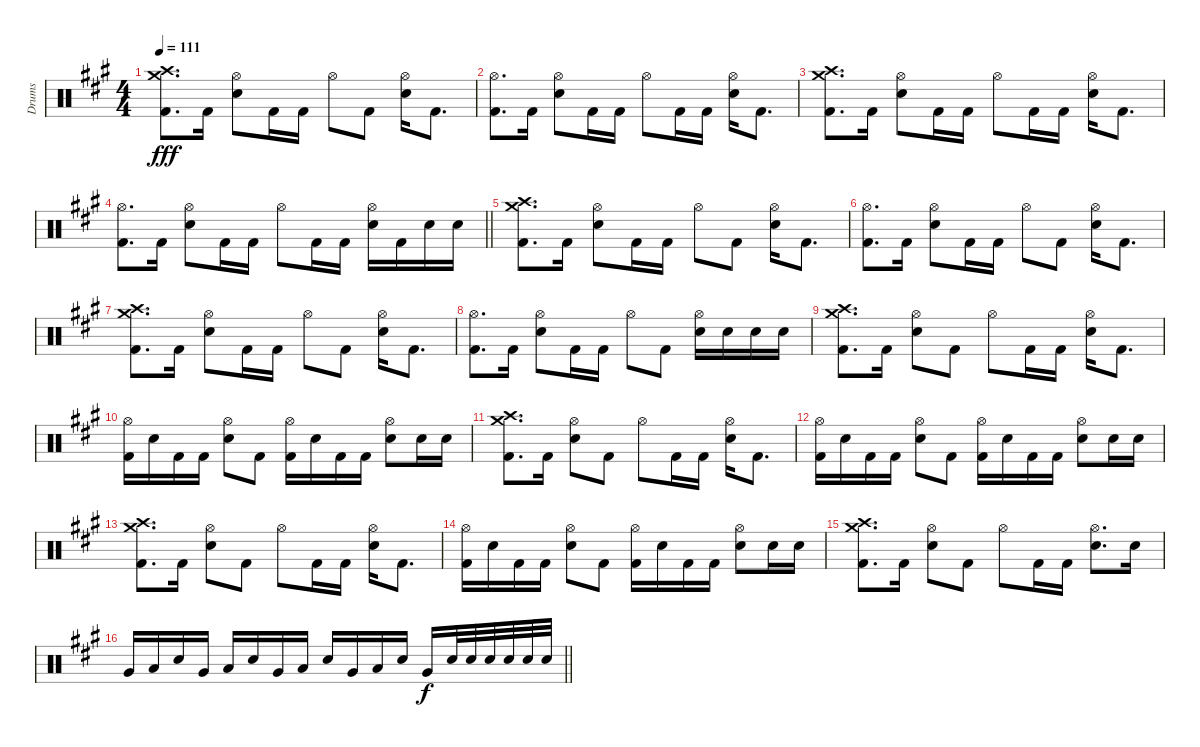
\track ("Drums" "Drums") {instrument percussion}
\staff {score}
\articulation defaults
\ts (4 4)
\tempo 111
\clef neutral
\ks a
("Crash medium (hit)" "Crash high (hit)" "Kick (hit) 2").8{d dy fff} "Kick (hit) 2".16 ("Hi-Hat (open)" "Snare (hit) 2").8 "Kick (hit) 2".16 "Kick (hit) 2".16 "Hi-Hat (open)".8 "Kick (hit) 2".8 ("Hi-Hat (open)" "Snare (hit) 2").16 "Kick (hit) 2".8{d} |
("Hi-Hat (open)" "Kick (hit) 2").8{d} "Kick (hit) 2".16 ("Hi-Hat (open)" "Snare (hit) 2").8 "Kick (hit) 2".16 "Kick (hit) 2".16 "Hi-Hat (open)".8 "Kick (hit) 2".16 "Kick (hit) 2".16 ("Hi-Hat (open)" "Snare (hit) 2").16 "Kick (hit) 2".8{d} |
("Crash high (hit)" "Crash medium (hit)" "Kick (hit) 2").8{d} "Kick (hit) 2".16 ("Hi-Hat (open)" "Snare (hit) 2").8 "Kick (hit) 2".16 "Kick (hit) 2".16 "Hi-Hat (open)".8 "Kick (hit) 2".16 "Kick (hit) 2".16 ("Hi-Hat (open)" "Snare (hit) 2").16 "Kick (hit) 2".8{d} |
\barLineRight lightlight
("Hi-Hat (open)" "Kick (hit) 2").8{d} "Kick (hit) 2".16 ("Hi-Hat (open)" "Snare (hit) 2").8 "Kick (hit) 2".16 "Kick (hit) 2".16 "Hi-Hat (open)".8 "Kick (hit) 2".16 "Kick (hit) 2".16 ("Hi-Hat (open)" "Snare (hit) 2").16 "Kick (hit) 2".16 "Snare (hit) 2".16 "Snare (hit) 2".16 |
("Crash medium (hit)" "Crash high (hit)" "Kick (hit) 2").8{d} "Kick (hit) 2".16 ("Hi-Hat (open)" "Snare (hit) 2").8 "Kick (hit) 2".16 "Kick (hit) 2".16 "Hi-Hat (open)".8 "Kick (hit) 2".8 ("Hi-Hat (open)" "Snare (hit) 2").16 "Kick (hit) 2".8{d} |
("Hi-Hat (open)" "Kick (hit) 2").8{d} "Kick (hit) 2".16 ("Hi-Hat (open)" "Snare (hit) 2").8 "Kick (hit) 2".16 "Kick (hit) 2".16 "Hi-Hat (open)".8 "Kick (hit) 2".8 ("Hi-Hat (open)" "Snare (hit) 2").16 "Kick (hit) 2".8{d} |
("Crash medium (hit)" "Crash high (hit)" "Kick (hit) 2").8{d} "Kick (hit) 2".16 ("Hi-Hat (open)" "Snare (hit) 2").8 "Kick (hit) 2".16 "Kick (hit) 2".16 "Hi-Hat (open)".8 "Kick (hit) 2".8 ("Hi-Hat (open)" "Snare (hit) 2").16 "Kick (hit) 2".8{d} |
("Hi-Hat (open)" "Kick (hit) 2").8{d} "Kick (hit) 2".16 ("Hi-Hat (open)" "Snare (hit) 2").8 "Kick (hit) 2".16 "Kick (hit) 2".16 "Hi-Hat (open)".8 "Kick (hit) 2".8 ("Hi-Hat (open)" "Snare (hit) 2").16 "Snare (hit) 2".16 "Snare (hit) 2".16 "Snare (hit) 2".16 |
("Crash medium (hit)" "Crash high (hit)" "Kick (hit) 2").8{d} "Kick (hit) 2".16 ("Hi-Hat (open)" "Snare (hit) 2").8 "Kick (hit) 2".8 "Hi-Hat (open)".8 "Kick (hit) 2".16 "Kick (hit) 2".16 ("Hi-Hat (open)" "Snare (hit) 2").16 "Kick (hit) 2".8{d} |
("Hi-Hat (open)" "Kick (hit) 2").16 "Snare (hit) 2".16 "Kick (hit) 2".16 "Kick (hit) 2".16 ("Hi-Hat (open)" "Snare (hit) 2").8 "Kick (hit) 2".8 ("Hi-Hat (open)" "Kick (hit) 2").16 "Snare (hit) 2".16 "Kick (hit) 2".16 "Kick (hit) 2".16 ("Hi-Hat (open)" "Snare (hit) 2").8 "Snare (hit) 2".16 "Snare (hit) 2".16 |
("Crash medium (hit)" "Crash high (hit)" "Kick (hit) 2").8{d} "Kick (hit) 2".16 ("Hi-Hat (open)" "Snare (hit) 2").8 "Kick (hit) 2".8 "Hi-Hat (open)".8 "Kick (hit) 2".16 "Kick (hit) 2".16 ("Hi-Hat (open)" "Snare (hit) 2").16 "Kick (hit) 2".8{d} |
("Hi-Hat (open)" "Kick (hit) 2").16 "Snare (hit) 2".16 "Kick (hit) 2".16 "Kick (hit) 2".16 ("Hi-Hat (open)" "Snare (hit) 2").8 "Kick (hit) 2".8 ("Hi-Hat (open)" "Kick (hit) 2").16 "Snare (hit) 2".16 "Kick (hit) 2".16 "Kick (hit) 2".16 ("Hi-Hat (open)" "Snare (hit) 2").8 "Snare (hit) 2".16 "Snare (hit) 2".16 |
("Crash medium (hit)" "Crash high (hit)" "Kick (hit) 2").8{d} "Kick (hit) 2".16 ("Hi-Hat (open)" "Snare (hit) 2").8 "Kick (hit) 2".8 "Hi-Hat (open)".8 "Kick (hit) 2".16 "Kick (hit) 2".16 ("Hi-Hat (open)" "Snare (hit) 2").16 "Kick (hit) 2".8{d} |
("Hi-Hat (open)" "Kick (hit) 2").16 "Snare (hit) 2".16 "Kick (hit) 2".16 "Kick (hit) 2".16 ("Hi-Hat (open)" "Snare (hit) 2").8 "Kick (hit) 2".8 ("Hi-Hat (open)" "Kick (hit) 2").16 "Snare (hit) 2".16 "Kick (hit) 2".16 "Kick (hit) 2".16 ("Hi-Hat (open)" "Snare (hit) 2").8 "Snare (hit) 2".16 "Snare (hit) 2".16 |
("Crash medium (hit)" "Crash high (hit)" "Kick (hit) 2").8{d} "Kick (hit) 2".16 ("Hi-Hat (open)" "Snare (hit) 2").8 "Kick (hit) 2".8 "Hi-Hat (open)".8 "Kick (hit) 2".16 "Kick (hit) 2".16 ("Hi-Hat (open)" "Snare (hit) 2").8{d} "Snare (hit) 2".16 |
\barLineRight lightlight "Very Low Tom (hit)".16 "Low Floor Tom (hit)".16 "Snare (hit) 2".16 "Very Low Tom (hit)".16 "Low Floor Tom (hit)".16 "Snare (hit) 2".16 "Very Low Tom (hit)".16 "Low Floor Tom (hit)".16 "Snare (hit) 2".16 "Very Low Tom (hit)".16 "Low Floor Tom (hit)".16 "Snare (hit) 2".16 "Very Low Tom (hit)".16{dy f} "Snare (hit) 2".32 "Snare (hit) 2".32 "Snare (hit) 2".32 "Snare (hit) 2".32 "Snare (hit) 2".32 "Snare (hit) 2".32
